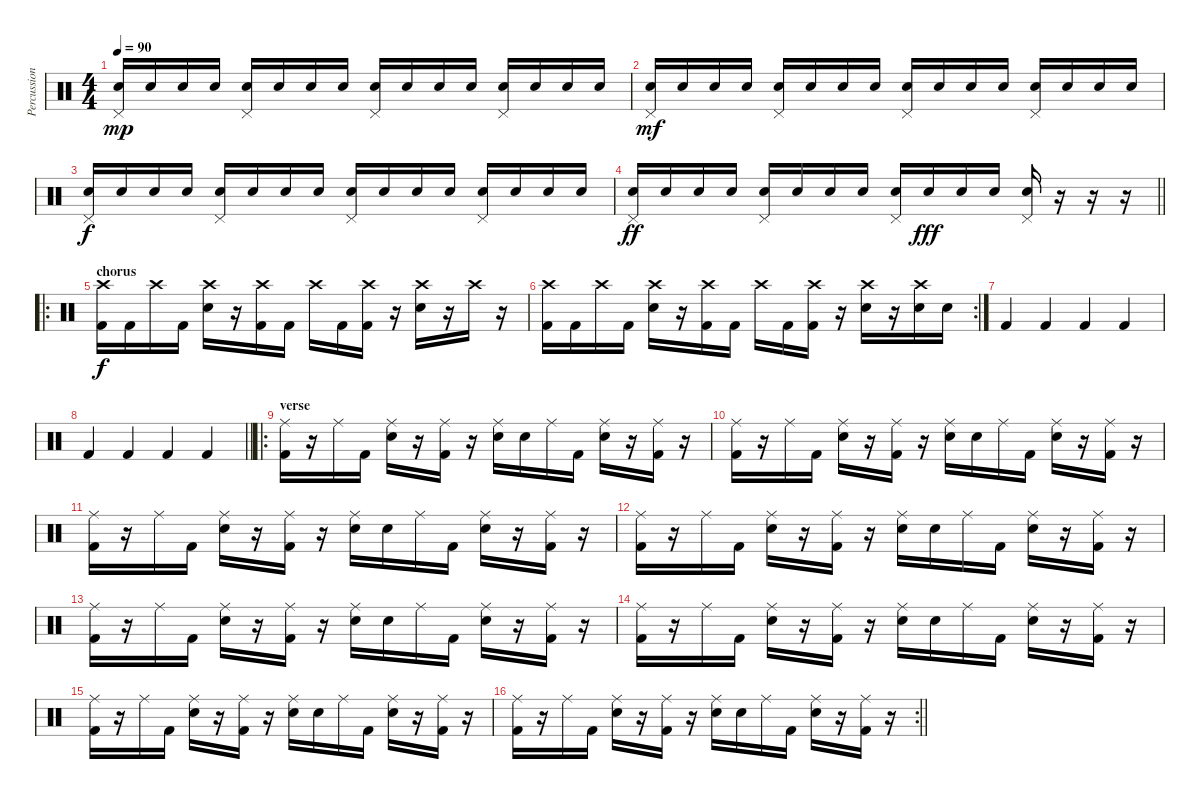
\track ("Percussion" "Percussion") {instrument percussion}
\staff {score}
\articulation defaults
\ts (4 4)
\tempo 90
\clef neutral
\ks c
("Electric Snare (hit)" "Pedal Hi-Hat (hit)").16{dy mp} "Electric Snare (hit)".16 "Electric Snare (hit)".16 "Electric Snare (hit)".16 ("Electric Snare (hit)" "Pedal Hi-Hat (hit)").16 "Electric Snare (hit)".16 "Electric Snare (hit)".16 "Electric Snare (hit)".16 ("Electric Snare (hit)" "Pedal Hi-Hat (hit)").16 "Electric Snare (hit)".16 "Electric Snare (hit)".16 "Electric Snare (hit)".16 ("Electric Snare (hit)" "Pedal Hi-Hat (hit)").16 "Electric Snare (hit)".16 "Electric Snare (hit)".16 "Electric Snare (hit)".16 |
("Electric Snare (hit)" "Pedal Hi-Hat (hit)").16{dy mf} "Electric Snare (hit)".16 "Electric Snare (hit)".16 "Electric Snare (hit)".16 ("Electric Snare (hit)" "Pedal Hi-Hat (hit)").16 "Electric Snare (hit)".16 "Electric Snare (hit)".16 "Electric Snare (hit)".16 ("Electric Snare (hit)" "Pedal Hi-Hat (hit)").16 "Electric Snare (hit)".16 "Electric Snare (hit)".16 "Electric Snare (hit)".16 ("Electric Snare (hit)" "Pedal Hi-Hat (hit)").16 "Electric Snare (hit)".16 "Electric Snare (hit)".16 "Electric Snare (hit)".16 |
("Electric Snare (hit)" "Pedal Hi-Hat (hit)").16{dy f} "Electric Snare (hit)".16 "Electric Snare (hit)".16 "Electric Snare (hit)".16 ("Electric Snare (hit)" "Pedal Hi-Hat (hit)").16 "Electric Snare (hit)".16 "Electric Snare (hit)".16 "Electric Snare (hit)".16 ("Electric Snare (hit)" "Pedal Hi-Hat (hit)").16 "Electric Snare (hit)".16 "Electric Snare (hit)".16 "Electric Snare (hit)".16 ("Electric Snare (hit)" "Pedal Hi-Hat (hit)").16 "Electric Snare (hit)".16 "Electric Snare (hit)".16 "Electric Snare (hit)".16 |
\barLineRight lightlight
("Electric Snare (hit)" "Pedal Hi-Hat (hit)").16{dy ff} "Electric Snare (hit)".16 "Electric Snare (hit)".16 "Electric Snare (hit)".16 ("Electric Snare (hit)" "Pedal Hi-Hat (hit)").16 "Electric Snare (hit)".16 "Electric Snare (hit)".16 "Electric Snare (hit)".16 ("Electric Snare (hit)" "Pedal Hi-Hat (hit)").16 "Electric Snare (hit)".16{dy fff} "Electric Snare (hit)".16 "Electric Snare (hit)".16 ("Electric Snare (hit)" "Pedal Hi-Hat (hit)").16 r.16 r.16 r.16 |
\ro
\section ("" "chorus")
("Crash high (hit)" "Kick (hit) 2").16{dy f} "Kick (hit) 2".16 "Crash high (hit)".16 "Kick (hit) 2".16 ("Crash high (hit)" "Electric Snare (hit)").16 r.16 ("Crash high (hit)" "Kick (hit) 2").16 "Kick (hit) 2".16 "Crash high (hit)".16 "Kick (hit) 2".16 ("Crash high (hit)" "Kick (hit) 2").16 r.16 ("Crash high (hit)" "Electric Snare (hit)").16 r.16 "Crash high (hit)".16 r.16 |
\rc 2
("Crash high (hit)" "Kick (hit) 2").16 "Kick (hit) 2".16 "Crash high (hit)".16 "Kick (hit) 2".16 ("Crash high (hit)" "Electric Snare (hit)").16 r.16 ("Crash high (hit)" "Kick (hit) 2").16 "Kick (hit) 2".16 "Crash high (hit)".16 "Kick (hit) 2".16 ("Crash high (hit)" "Kick (hit) 2").16 r.16 ("Crash high (hit)" "Electric Snare (hit)").16 r.16 ("Crash high (hit)" "Electric Snare (hit)").16 "Electric Snare (hit)".16 |
"Kick (hit) 2".4 "Kick (hit) 2".4 "Kick (hit) 2".4 "Kick (hit) 2".4 |
\barLineRight lightlight "Kick (hit) 2".4 "Kick (hit) 2".4 "Kick (hit) 2".4 "Kick (hit) 2".4
|
\ro
\section ("" "verse")
("Ride (middle)" "Kick (hit) 2").16 r.16 "Ride (middle)".16 "Kick (hit) 2".16 ("Ride (middle)" "Electric Snare (hit)").16 r.16 ("Ride (middle)" "Kick (hit) 2").16 r.16 ("Ride (middle)" "Electric Snare (hit)").16 "Electric Snare (hit)".16 "Ride (middle)".16 "Kick (hit) 2".16 ("Ride (middle)" "Electric Snare (hit)").16 r.16 ("Ride (middle)" "Kick (hit) 2").16 r.16 |
("Ride (middle)" "Kick (hit) 2").16 r.16 "Ride (middle)".16 "Kick (hit) 2".16 ("Ride (middle)" "Electric Snare (hit)").16 r.16 ("Ride (middle)" "Kick (hit) 2").16 r.16 ("Ride (middle)" "Electric Snare (hit)").16 "Electric Snare (hit)".16 "Ride (middle)".16 "Kick (hit) 2".16 ("Ride (middle)" "Electric Snare (hit)").16 r.16 ("Ride (middle)" "Kick (hit) 2").16 r.16 |
("Ride (middle)" "Kick (hit) 2").16 r.16 "Ride (middle)".16 "Kick (hit) 2".16 ("Ride (middle)" "Electric Snare (hit)").16 r.16 ("Ride (middle)" "Kick (hit) 2").16 r.16 ("Ride (middle)" "Electric Snare (hit)").16 "Electric Snare (hit)".16 "Ride (middle)".16 "Kick (hit) 2".16 ("Ride (middle)" "Electric Snare (hit)").16 r.16 ("Ride (middle)" "Kick (hit) 2").16 r.16 |
("Ride (middle)" "Kick (hit) 2").16 r.16 "Ride (middle)".16 "Kick (hit) 2".16 ("Ride (middle)" "Electric Snare (hit)").16 r.16 ("Ride (middle)" "Kick (hit) 2").16 r.16 ("Ride (middle)" "Electric Snare (hit)").16 "Electric Snare (hit)".16 "Ride (middle)".16 "Kick (hit) 2".16 ("Ride (middle)" "Electric Snare (hit)").16 r.16 ("Ride (middle)" "Kick (hit) 2").16 r.16 |
("Ride (middle)" "Kick (hit) 2").16 r.16 "Ride (middle)".16 "Kick (hit) 2".16 ("Ride (middle)" "Electric Snare (hit)").16 r.16 ("Ride (middle)" "Kick (hit) 2").16 r.16 ("Ride (middle)" "Electric Snare (hit)").16 "Electric Snare (hit)".16 "Ride (middle)".16 "Kick (hit) 2".16 ("Ride (middle)" "Electric Snare (hit)").16 r.16 ("Ride (middle)" "Kick (hit) 2").16 r.16 |
("Ride (middle)" "Kick (hit) 2").16 r.16 "Ride (middle)".16 "Kick (hit) 2".16 ("Ride (middle)" "Electric Snare (hit)").16 r.16 ("Ride (middle)" "Kick (hit) 2").16 r.16 ("Ride (middle)" "Electric Snare (hit)").16 "Electric Snare (hit)".16 "Ride (middle)".16 "Kick (hit) 2".16 ("Ride (middle)" "Electric Snare (hit)").16 r.16 ("Ride (middle)" "Kick (hit) 2").16 r.16 |
("Ride (middle)" "Kick (hit) 2").16 r.16 "Ride (middle)".16 "Kick (hit) 2".16 ("Ride (middle)" "Electric Snare (hit)").16 r.16 ("Ride (middle)" "Kick (hit) 2").16 r.16 ("Ride (middle)" "Electric Snare (hit)").16 "Electric Snare (hit)".16 "Ride (middle)".16 "Kick (hit) 2".16 ("Ride (middle)" "Electric Snare (hit)").16 r.16 ("Ride (middle)" "Kick (hit) 2").16 r.16 |
\rc 2
\barLineRight lightlight
("Ride (middle)" "Kick (hit) 2").16 r.16 "Ride (middle)".16 "Kick (hit) 2".16 ("Ride (middle)" "Electric Snare (hit)").16 r.16 ("Ride (middle)" "Kick (hit) 2").16 r.16 ("Ride (middle)" "Electric Snare (hit)").16 "Electric Snare (hit)".16 "Ride (middle)".16 "Kick (hit) 2".16 ("Ride (middle)" "Electric Snare (hit)").16 r.16 ("Ride (middle)" "Kick (hit) 2").16 r.16
